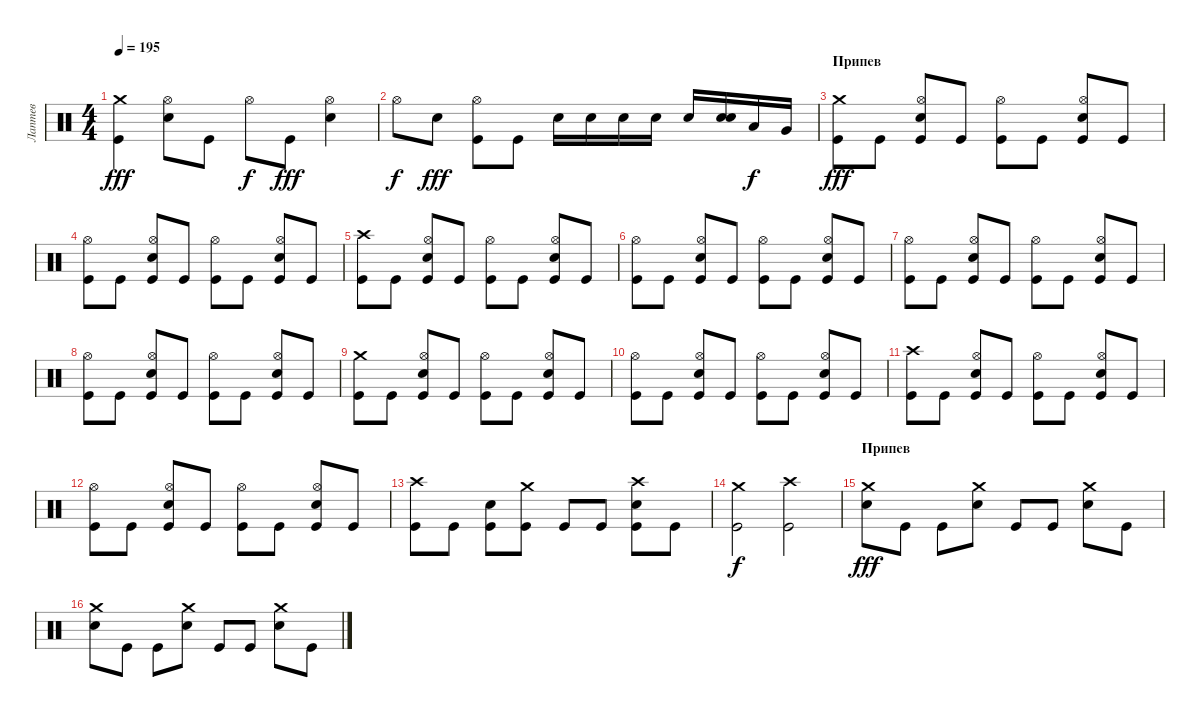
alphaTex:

\track ("Лаптев" "Лаптев") {instrument percussion}
\staff {score}
\articulation defaults
\ts (4 4)
\tempo 195
\clef neutral
\ks c
("Crash medium (hit)" "Kick (hit)").4{dy fff} ("Hi-Hat (open)" "Electric Snare (hit)").8 "Kick (hit)".8 "Hi-Hat (open)".8{dy f} "Kick (hit)".8{dy fff} ("Hi-Hat (open)" "Electric Snare (hit)").4 |
"Hi-Hat (open)".8{dy f} "Electric Snare (hit)".8{dy fff} ("Hi-Hat (open)" "Kick (hit)").8 "Kick (hit)".8 "Electric Snare (hit)".16 "Electric Snare (hit)".16 "Electric Snare (hit)".16 "Electric Snare (hit)".16 "Electric Snare (hit)".16 ("Electric Snare (hit)" "Electric Snare (hit)").16 "Low Tom (hit)".16{dy f} "Very Low Tom (hit)".16 |
\section ("" "Припев")
("Crash medium (hit)" "Kick (hit)").8{dy fff} "Kick (hit)".8 ("Hi-Hat (open)" "Electric Snare (hit)" "Kick (hit)").8 "Kick (hit)".8 ("Hi-Hat (open)" "Kick (hit)").8 "Kick (hit)".8 ("Hi-Hat (open)" "Electric Snare (hit)" "Kick (hit)").8 "Kick (hit)".8 |
("Hi-Hat (open)" "Kick (hit)").8 "Kick (hit)".8 ("Hi-Hat (open)" "Electric Snare (hit)" "Kick (hit)").8 "Kick (hit)".8 ("Hi-Hat (open)" "Kick (hit)").8 "Kick (hit)".8 ("Hi-Hat (open)" "Electric Snare (hit)" "Kick (hit)").8 "Kick (hit)".8 |
("Crash high (hit)" "Kick (hit)").8 "Kick (hit)".8 ("Hi-Hat (open)" "Electric Snare (hit)" "Kick (hit)").8 "Kick (hit)".8 ("Hi-Hat (open)" "Kick (hit)").8 "Kick (hit)".8 ("Hi-Hat (open)" "Electric Snare (hit)" "Kick (hit)").8 "Kick (hit)".8 |
("Hi-Hat (open)" "Kick (hit)").8 "Kick (hit)".8 ("Hi-Hat (open)" "Electric Snare (hit)" "Kick (hit)").8 "Kick (hit)".8 ("Hi-Hat (open)" "Kick (hit)").8 "Kick (hit)".8 ("Hi-Hat (open)" "Electric Snare (hit)" "Kick (hit)").8 "Kick (hit)".8 |
("Hi-Hat (open)" "Kick (hit)").8 "Kick (hit)".8 ("Hi-Hat (open)" "Electric Snare (hit)" "Kick (hit)").8 "Kick (hit)".8 ("Hi-Hat (open)" "Kick (hit)").8 "Kick (hit)".8 ("Hi-Hat (open)" "Electric Snare (hit)" "Kick (hit)").8 "Kick (hit)".8 |
("Hi-Hat (open)" "Kick (hit)").8 "Kick (hit)".8 ("Hi-Hat (open)" "Electric Snare (hit)" "Kick (hit)").8 "Kick (hit)".8 ("Hi-Hat (open)" "Kick (hit)").8 "Kick (hit)".8 ("Hi-Hat (open)" "Electric Snare (hit)" "Kick (hit)").8 "Kick (hit)".8 |
("Crash medium (hit)" "Kick (hit)").8 "Kick (hit)".8 ("Hi-Hat (open)" "Electric Snare (hit)" "Kick (hit)").8 "Kick (hit)".8 ("Hi-Hat (open)" "Kick (hit)").8 "Kick (hit)".8 ("Hi-Hat (open)" "Electric Snare (hit)" "Kick (hit)").8 "Kick (hit)".8 |
("Hi-Hat (open)" "Kick (hit)").8 "Kick (hit)".8 ("Hi-Hat (open)" "Electric Snare (hit)" "Kick (hit)").8 "Kick (hit)".8 ("Hi-Hat (open)" "Kick (hit)").8 "Kick (hit)".8 ("Hi-Hat (open)" "Electric Snare (hit)" "Kick (hit)").8 "Kick (hit)".8 |
("Crash high (hit)" "Kick (hit)").8 "Kick (hit)".8 ("Hi-Hat (open)" "Electric Snare (hit)" "Kick (hit)").8 "Kick (hit)".8 ("Hi-Hat (open)" "Kick (hit)").8 "Kick (hit)".8 ("Hi-Hat (open)" "Electric Snare (hit)" "Kick (hit)").8 "Kick (hit)".8 |
("Hi-Hat (open)" "Kick (hit)").8 "Kick (hit)".8 ("Hi-Hat (open)" "Electric Snare (hit)" "Kick (hit)").8 "Kick (hit)".8 ("Hi-Hat (open)" "Kick (hit)").8 "Kick (hit)".8 ("Hi-Hat (open)" "Electric Snare (hit)" "Kick (hit)").8 "Kick (hit)".8 |
("Crash high (hit)" "Kick (hit)").8 "Kick (hit)".8 ("Electric Snare (hit)" "Kick (hit)").8 ("Crash medium (hit)" "Kick (hit)").8 "Kick (hit)".8 "Kick (hit)".8 ("Crash high (hit)" "Electric Snare (hit)" "Kick (hit)").8 "Kick (hit)".8 |
("Crash medium (hit)" "Kick (hit)").2{dy f} ("Crash high (hit)" "Kick (hit)").2 |
\section ("" "Припев")
("Crash medium (hit)" "Electric Snare (hit)").8{dy fff} "Kick (hit)".8 "Kick (hit)".8 ("Crash medium (hit)" "Electric Snare (hit)").8 "Kick (hit)".8 "Kick (hit)".8 ("Crash medium (hit)" "Electric Snare (hit)").8 "Kick (hit)".8 |
("Crash medium (hit)" "Electric Snare (hit)").8 "Kick (hit)".8 "Kick (hit)".8 ("Crash medium (hit)" "Electric Snare (hit)").8 "Kick (hit)".8 "Kick (hit)".8 ("Crash medium (hit)" "Electric Snare (hit)").8 "Kick (hit)".8
